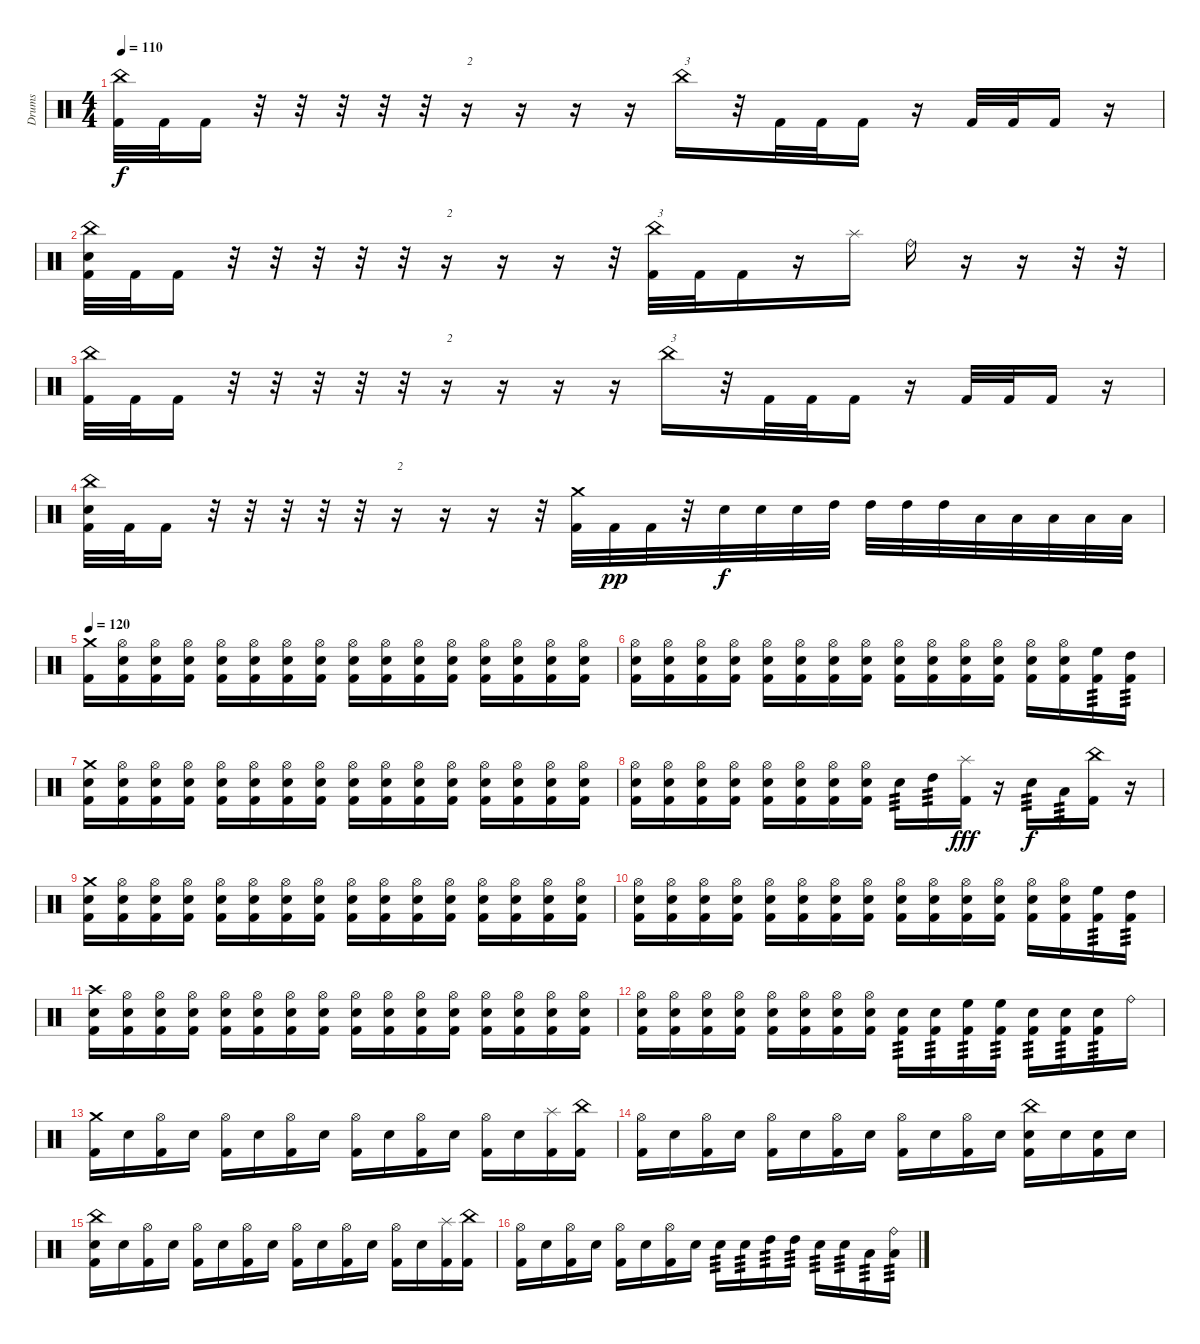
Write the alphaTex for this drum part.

\track ("Drums" "Drums") {instrument percussion}
\staff {score}
\articulation defaults
\ts (4 4)
\tempo 110
\clef neutral
\ks c
("China (hit)" "Kick (hit) 2").32{dy f} "Kick (hit) 2".32 "Kick (hit) 2".16 r.32{volume 0} r.32 r.32 r.32 r.32 r.16{txt "2"} r.16 r.16 r.16 "China (hit)".16{txt "3" volume 13} r.32 "Kick (hit) 2".32 "Kick (hit) 2".32 "Kick (hit) 2".16 r.16 "Kick (hit) 2".32 "Kick (hit) 2".32 "Kick (hit) 2".16 r.16 |
("China (hit)" "Electric Snare (hit)" "Kick (hit) 2").32 "Kick (hit) 2".32 "Kick (hit) 2".16 r.32 r.32 r.32 r.32 r.32 r.16{txt "2"} r.16 r.16 r.32 ("China (hit)" "Kick (hit) 2").32{txt "3"} "Kick (hit) 2".32 "Kick (hit) 2".16 r.16 "Splash (hit)".16 "Ride (bell)".16 r.16 r.16 r.32 r.32 |
("China (hit)" "Kick (hit) 2").32 "Kick (hit) 2".32 "Kick (hit) 2".16 r.32{volume 0} r.32 r.32 r.32 r.32 r.16{txt "2"} r.16 r.16 r.16 "China (hit)".16{txt "3" volume 13} r.32 "Kick (hit) 2".32 "Kick (hit) 2".32 "Kick (hit) 2".16 r.16 "Kick (hit) 2".32 "Kick (hit) 2".32 "Kick (hit) 2".16 r.16 |
("China (hit)" "Electric Snare (hit)" "Kick (hit) 2").32 "Kick (hit) 2".32 "Kick (hit) 2".16 r.32 r.32 r.32 r.32 r.32 r.16{txt "2"} r.16 r.16 r.32 ("Crash medium (hit)" "Kick (hit) 2").32 "Kick (hit) 2".32{dy pp} "Kick (hit) 2".32 r.32 "Electric Snare (hit)".32{dy f} "Electric Snare (hit)".32 "Electric Snare (hit)".32 "High Tom (hit)".32 "High Tom (hit)".32 "High Tom (hit)".32 "High Tom (hit)".32 "Low Tom (hit)".32 "Low Tom (hit)".32 "Low Tom (hit)".32 "Low Tom (hit)".32 "Low Tom (hit)".32 |
\tempo 120
("Crash medium (hit)" "Kick (hit) 2").16 ("Hi-Hat (open)" "Electric Snare (hit)" "Kick (hit) 2").16 ("Hi-Hat (open)" "Electric Snare (hit)" "Kick (hit) 2").16 ("Hi-Hat (open)" "Electric Snare (hit)" "Kick (hit) 2").16 ("Hi-Hat (open)" "Electric Snare (hit)" "Kick (hit) 2").16 ("Hi-Hat (open)" "Electric Snare (hit)" "Kick (hit) 2").16 ("Hi-Hat (open)" "Electric Snare (hit)" "Kick (hit) 2").16 ("Hi-Hat (open)" "Electric Snare (hit)" "Kick (hit) 2").16 ("Hi-Hat (open)" "Electric Snare (hit)" "Kick (hit) 2").16 ("Hi-Hat (open)" "Electric Snare (hit)" "Kick (hit) 2").16 ("Hi-Hat (open)" "Electric Snare (hit)" "Kick (hit) 2").16 ("Hi-Hat (open)" "Electric Snare (hit)" "Kick (hit) 2").16 ("Hi-Hat (open)" "Electric Snare (hit)" "Kick (hit) 2").16 ("Hi-Hat (open)" "Electric Snare (hit)" "Kick (hit) 2").16 ("Hi-Hat (open)" "Electric Snare (hit)" "Kick (hit) 2").16 ("Hi-Hat (open)" "Electric Snare (hit)" "Kick (hit) 2").16 |
("Hi-Hat (open)" "Electric Snare (hit)" "Kick (hit) 2").16 ("Hi-Hat (open)" "Electric Snare (hit)" "Kick (hit) 2").16 ("Hi-Hat (open)" "Electric Snare (hit)" "Kick (hit) 2").16 ("Hi-Hat (open)" "Electric Snare (hit)" "Kick (hit) 2").16 ("Hi-Hat (open)" "Electric Snare (hit)" "Kick (hit) 2").16 ("Hi-Hat (open)" "Electric Snare (hit)" "Kick (hit) 2").16 ("Hi-Hat (open)" "Electric Snare (hit)" "Kick (hit) 2").16 ("Hi-Hat (open)" "Electric Snare (hit)" "Kick (hit) 2").16 ("Hi-Hat (open)" "Electric Snare (hit)" "Kick (hit) 2").16 ("Hi-Hat (open)" "Electric Snare (hit)" "Kick (hit) 2").16 ("Hi-Hat (open)" "Electric Snare (hit)" "Kick (hit) 2").16 ("Hi-Hat (open)" "Electric Snare (hit)" "Kick (hit) 2").16 ("Hi-Hat (open)" "Electric Snare (hit)" "Kick (hit) 2").16 ("Hi-Hat (open)" "Electric Snare (hit)" "Kick (hit) 2").16 ("High Floor Tom (hit)" "Kick (hit) 2").16{tp 3} ("High Tom (hit)" "Kick (hit) 2").16{tp 3} |
("Crash medium (hit)" "Electric Snare (hit)" "Kick (hit) 2").16 ("Hi-Hat (open)" "Electric Snare (hit)" "Kick (hit) 2").16 ("Hi-Hat (open)" "Electric Snare (hit)" "Kick (hit) 2").16 ("Hi-Hat (open)" "Electric Snare (hit)" "Kick (hit) 2").16 ("Hi-Hat (open)" "Electric Snare (hit)" "Kick (hit) 2").16 ("Hi-Hat (open)" "Electric Snare (hit)" "Kick (hit) 2").16 ("Hi-Hat (open)" "Electric Snare (hit)" "Kick (hit) 2").16 ("Hi-Hat (open)" "Electric Snare (hit)" "Kick (hit) 2").16 ("Hi-Hat (open)" "Electric Snare (hit)" "Kick (hit) 2").16 ("Hi-Hat (open)" "Electric Snare (hit)" "Kick (hit) 2").16 ("Hi-Hat (open)" "Electric Snare (hit)" "Kick (hit) 2").16 ("Hi-Hat (open)" "Electric Snare (hit)" "Kick (hit) 2").16 ("Hi-Hat (open)" "Electric Snare (hit)" "Kick (hit) 2").16 ("Hi-Hat (open)" "Electric Snare (hit)" "Kick (hit) 2").16 ("Hi-Hat (open)" "Electric Snare (hit)" "Kick (hit) 2").16 ("Hi-Hat (open)" "Electric Snare (hit)" "Kick (hit) 2").16 |
("Hi-Hat (open)" "Electric Snare (hit)" "Kick (hit) 2").16 ("Hi-Hat (open)" "Electric Snare (hit)" "Kick (hit) 2").16 ("Hi-Hat (open)" "Electric Snare (hit)" "Kick (hit) 2").16 ("Hi-Hat (open)" "Electric Snare (hit)" "Kick (hit) 2").16 ("Hi-Hat (open)" "Electric Snare (hit)" "Kick (hit) 2").16 ("Hi-Hat (open)" "Electric Snare (hit)" "Kick (hit) 2").16 ("Hi-Hat (open)" "Electric Snare (hit)" "Kick (hit) 2").16 ("Hi-Hat (open)" "Electric Snare (hit)" "Kick (hit) 2").16 "Electric Snare (hit)".16{tp 3} "High Tom (hit)".16{tp 3} ("Splash (hit)" "Kick (hit) 2").16{dy fff} r.16 "Electric Snare (hit)".16{tp 3 dy f} "Low Tom (hit)".16{tp 3} ("China (hit)" "Kick (hit) 2").16 r.16 |
("Crash medium (hit)" "Electric Snare (hit)" "Kick (hit) 2").16 ("Hi-Hat (open)" "Electric Snare (hit)" "Kick (hit) 2").16 ("Hi-Hat (open)" "Electric Snare (hit)" "Kick (hit) 2").16 ("Hi-Hat (open)" "Electric Snare (hit)" "Kick (hit) 2").16 ("Hi-Hat (open)" "Electric Snare (hit)" "Kick (hit) 2").16 ("Hi-Hat (open)" "Electric Snare (hit)" "Kick (hit) 2").16 ("Hi-Hat (open)" "Electric Snare (hit)" "Kick (hit) 2").16 ("Hi-Hat (open)" "Electric Snare (hit)" "Kick (hit) 2").16 ("Hi-Hat (open)" "Electric Snare (hit)" "Kick (hit) 2").16 ("Hi-Hat (open)" "Electric Snare (hit)" "Kick (hit) 2").16 ("Hi-Hat (open)" "Electric Snare (hit)" "Kick (hit) 2").16 ("Hi-Hat (open)" "Electric Snare (hit)" "Kick (hit) 2").16 ("Hi-Hat (open)" "Electric Snare (hit)" "Kick (hit) 2").16 ("Hi-Hat (open)" "Electric Snare (hit)" "Kick (hit) 2").16 ("Hi-Hat (open)" "Electric Snare (hit)" "Kick (hit) 2").16 ("Hi-Hat (open)" "Electric Snare (hit)" "Kick (hit) 2").16 |
("Hi-Hat (open)" "Electric Snare (hit)" "Kick (hit) 2").16 ("Hi-Hat (open)" "Electric Snare (hit)" "Kick (hit) 2").16 ("Hi-Hat (open)" "Electric Snare (hit)" "Kick (hit) 2").16 ("Hi-Hat (open)" "Electric Snare (hit)" "Kick (hit) 2").16 ("Hi-Hat (open)" "Electric Snare (hit)" "Kick (hit) 2").16 ("Hi-Hat (open)" "Electric Snare (hit)" "Kick (hit) 2").16 ("Hi-Hat (open)" "Electric Snare (hit)" "Kick (hit) 2").16 ("Hi-Hat (open)" "Electric Snare (hit)" "Kick (hit) 2").16 ("Hi-Hat (open)" "Electric Snare (hit)" "Kick (hit) 2").16 ("Hi-Hat (open)" "Electric Snare (hit)" "Kick (hit) 2").16 ("Hi-Hat (open)" "Electric Snare (hit)" "Kick (hit) 2").16 ("Hi-Hat (open)" "Electric Snare (hit)" "Kick (hit) 2").16 ("Hi-Hat (open)" "Electric Snare (hit)" "Kick (hit) 2").16 ("Hi-Hat (open)" "Electric Snare (hit)" "Kick (hit) 2").16 ("High Floor Tom (hit)" "Kick (hit) 2").16{tp 3} ("High Tom (hit)" "Kick (hit) 2").16{tp 3} |
("Crash high (hit)" "Electric Snare (hit)" "Kick (hit) 2").16 ("Hi-Hat (open)" "Electric Snare (hit)" "Kick (hit) 2").16 ("Hi-Hat (open)" "Electric Snare (hit)" "Kick (hit) 2").16 ("Hi-Hat (open)" "Electric Snare (hit)" "Kick (hit) 2").16 ("Hi-Hat (open)" "Electric Snare (hit)" "Kick (hit) 2").16 ("Hi-Hat (open)" "Electric Snare (hit)" "Kick (hit) 2").16 ("Hi-Hat (open)" "Electric Snare (hit)" "Kick (hit) 2").16 ("Hi-Hat (open)" "Electric Snare (hit)" "Kick (hit) 2").16 ("Hi-Hat (open)" "Electric Snare (hit)" "Kick (hit) 2").16 ("Hi-Hat (open)" "Electric Snare (hit)" "Kick (hit) 2").16 ("Hi-Hat (open)" "Electric Snare (hit)" "Kick (hit) 2").16 ("Hi-Hat (open)" "Electric Snare (hit)" "Kick (hit) 2").16 ("Hi-Hat (open)" "Electric Snare (hit)" "Kick (hit) 2").16 ("Hi-Hat (open)" "Electric Snare (hit)" "Kick (hit) 2").16 ("Hi-Hat (open)" "Electric Snare (hit)" "Kick (hit) 2").16 ("Hi-Hat (open)" "Electric Snare (hit)" "Kick (hit) 2").16 |
("Hi-Hat (open)" "Electric Snare (hit)" "Kick (hit) 2").16 ("Hi-Hat (open)" "Electric Snare (hit)" "Kick (hit) 2").16 ("Hi-Hat (open)" "Electric Snare (hit)" "Kick (hit) 2").16 ("Hi-Hat (open)" "Electric Snare (hit)" "Kick (hit) 2").16 ("Hi-Hat (open)" "Electric Snare (hit)" "Kick (hit) 2").16 ("Hi-Hat (open)" "Electric Snare (hit)" "Kick (hit) 2").16 ("Hi-Hat (open)" "Electric Snare (hit)" "Kick (hit) 2").16 ("Hi-Hat (open)" "Electric Snare (hit)" "Kick (hit) 2").16 ("Electric Snare (hit)" "Kick (hit) 2").16{tp 3} ("Electric Snare (hit)" "Kick (hit) 2").16{tp 3} ("High Floor Tom (hit)" "Kick (hit) 2").16{tp 3} ("High Floor Tom (hit)" "Kick (hit) 2").16{tp 3} ("Electric Snare (hit)" "Kick (hit) 2").16{tp 3} ("Electric Snare (hit)" "Kick (hit) 2").16{tp 3} ("Electric Snare (hit)" "Kick (hit) 2").16{tp 3} "Ride (bell)".16 |
("Crash medium (hit)" "Kick (hit) 2").16 "Electric Snare (hit)".16 ("Hi-Hat (open)" "Kick (hit) 2").16 "Electric Snare (hit)".16 ("Hi-Hat (open)" "Kick (hit) 2").16 "Electric Snare (hit)".16 ("Hi-Hat (open)" "Kick (hit) 2").16 "Electric Snare (hit)".16 ("Hi-Hat (open)" "Kick (hit) 2").16 "Electric Snare (hit)".16 ("Hi-Hat (open)" "Kick (hit) 2").16 "Electric Snare (hit)".16 ("Hi-Hat (open)" "Kick (hit) 2").16 "Electric Snare (hit)".16 ("Splash (hit)" "Kick (hit) 2").16 ("China (hit)" "Kick (hit) 2").16 |
("Hi-Hat (open)" "Kick (hit) 2").16 "Electric Snare (hit)".16 ("Hi-Hat (open)" "Kick (hit) 2").16 "Electric Snare (hit)".16 ("Hi-Hat (open)" "Kick (hit) 2").16 "Electric Snare (hit)".16 ("Hi-Hat (open)" "Kick (hit) 2").16 "Electric Snare (hit)".16 ("Hi-Hat (open)" "Kick (hit) 2").16 "Electric Snare (hit)".16 ("Hi-Hat (open)" "Kick (hit) 2").16 "Electric Snare (hit)".16 ("China (hit)" "Electric Snare (hit)" "Kick (hit) 2").16 "Electric Snare (hit)".16 ("Electric Snare (hit)" "Kick (hit) 2").16 "Electric Snare (hit)".16 |
("China (hit)" "Electric Snare (hit)" "Kick (hit) 2").16 "Electric Snare (hit)".16 ("Hi-Hat (open)" "Kick (hit) 2").16 "Electric Snare (hit)".16 ("Hi-Hat (open)" "Kick (hit) 2").16 "Electric Snare (hit)".16 ("Hi-Hat (open)" "Kick (hit) 2").16 "Electric Snare (hit)".16 ("Hi-Hat (open)" "Kick (hit) 2").16 "Electric Snare (hit)".16 ("Hi-Hat (open)" "Kick (hit) 2").16 "Electric Snare (hit)".16 ("Hi-Hat (open)" "Kick (hit) 2").16 "Electric Snare (hit)".16 ("Splash (hit)" "Kick (hit) 2").16 ("China (hit)" "Kick (hit) 2").16 |
("Hi-Hat (open)" "Kick (hit) 2").16 "Electric Snare (hit)".16 ("Hi-Hat (open)" "Kick (hit) 2").16 "Electric Snare (hit)".16 ("Hi-Hat (open)" "Kick (hit) 2").16 "Electric Snare (hit)".16 ("Hi-Hat (open)" "Kick (hit) 2").16 "Electric Snare (hit)".16 "Electric Snare (hit)".16{tp 3} "Electric Snare (hit)".16{tp 3} "High Tom (hit)".16{tp 3} "High Tom (hit)".16{tp 3} "Electric Snare (hit)".16{tp 3} "Electric Snare (hit)".16{tp 3} "Low Tom (hit)".16{tp 3} ("Ride (bell)" "Low Tom (hit)").16{tp 3}
